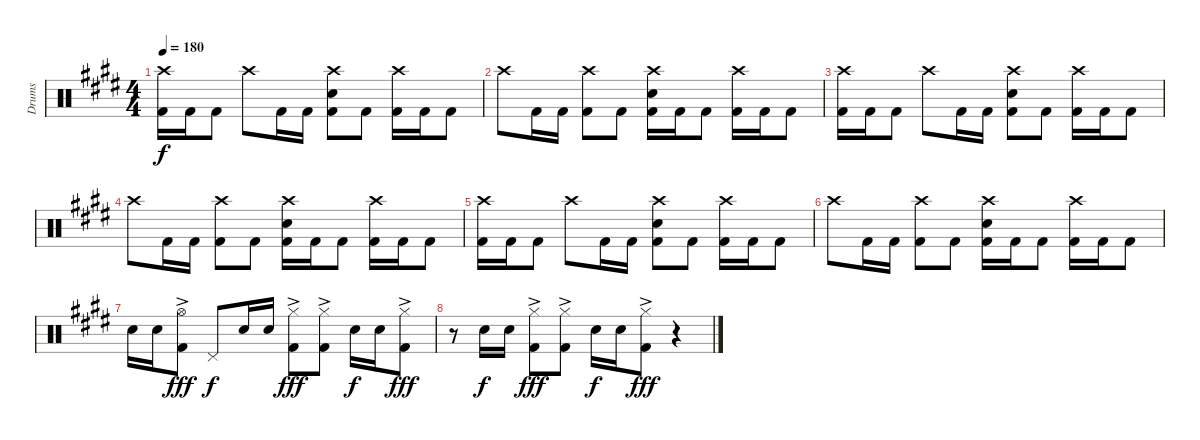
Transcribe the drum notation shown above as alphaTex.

\track ("Drums" "Drums") {instrument percussion}
\staff {score}
\articulation defaults
\ts (4 4)
\tempo 180
\clef neutral
\ks c#minor
("Crash high (hit)" "Kick (hit) 2").16{dy f} "Kick (hit) 2".16 "Kick (hit) 2".8 "Crash high (hit)".8 "Kick (hit) 2".16 "Kick (hit) 2".16 ("Crash high (hit)" "Snare (hit) 2" "Kick (hit) 2").8 "Kick (hit) 2".8 ("Crash high (hit)" "Kick (hit) 2").16 "Kick (hit) 2".16 "Kick (hit) 2".8 |
"Crash high (hit)".8 "Kick (hit) 2".16 "Kick (hit) 2".16 ("Crash high (hit)" "Kick (hit) 2").8 "Kick (hit) 2".8 ("Crash high (hit)" "Snare (hit) 2" "Kick (hit) 2").16 "Kick (hit) 2".16 "Kick (hit) 2".8 ("Crash high (hit)" "Kick (hit) 2").16 "Kick (hit) 2".16 "Kick (hit) 2".8 |
("Crash high (hit)" "Kick (hit) 2").16 "Kick (hit) 2".16 "Kick (hit) 2".8 "Crash high (hit)".8 "Kick (hit) 2".16 "Kick (hit) 2".16 ("Crash high (hit)" "Snare (hit) 2" "Kick (hit) 2").8 "Kick (hit) 2".8 ("Crash high (hit)" "Kick (hit) 2").16 "Kick (hit) 2".16 "Kick (hit) 2".8 |
"Crash high (hit)".8 "Kick (hit) 2".16 "Kick (hit) 2".16 ("Crash high (hit)" "Kick (hit) 2").8 "Kick (hit) 2".8 ("Crash high (hit)" "Snare (hit) 2" "Kick (hit) 2").16 "Kick (hit) 2".16 "Kick (hit) 2".8 ("Crash high (hit)" "Kick (hit) 2").16 "Kick (hit) 2".16 "Kick (hit) 2".8 |
("Crash high (hit)" "Kick (hit) 2").16 "Kick (hit) 2".16 "Kick (hit) 2".8 "Crash high (hit)".8 "Kick (hit) 2".16 "Kick (hit) 2".16 ("Crash high (hit)" "Snare (hit) 2" "Kick (hit) 2").8 "Kick (hit) 2".8 ("Crash high (hit)" "Kick (hit) 2").16 "Kick (hit) 2".16 "Kick (hit) 2".8 |
"Crash high (hit)".8 "Kick (hit) 2".16 "Kick (hit) 2".16 ("Crash high (hit)" "Kick (hit) 2").8 "Kick (hit) 2".8 ("Crash high (hit)" "Snare (hit) 2" "Kick (hit) 2").16 "Kick (hit) 2".16 "Kick (hit) 2".8 ("Crash high (hit)" "Kick (hit) 2").16 "Kick (hit) 2".16 "Kick (hit) 2".8 |
"Snare (hit) 2".16 "Snare (hit) 2".16 ("Hi-Hat (open)"{ac} "Kick (hit) 2").8{dy fff} "Pedal Hi-Hat (hit)".8{dy f} "Snare (hit) 2".16 "Snare (hit) 2".16 ("Hi-Hat (closed)"{ac} "Kick (hit) 2").8{dy fff} ("Hi-Hat (closed)"{ac} "Kick (hit) 2").8 "Snare (hit) 2".16{dy f} "Snare (hit) 2".16 ("Hi-Hat (closed)"{ac} "Kick (hit) 2").8{dy fff} |
r.8 "Snare (hit) 2".16{dy f} "Snare (hit) 2".16 ("Hi-Hat (closed)"{ac} "Kick (hit) 2").8{dy fff} ("Hi-Hat (closed)"{ac} "Kick (hit) 2").8 "Snare (hit) 2".16{dy f} "Snare (hit) 2".16 ("Hi-Hat (closed)"{ac} "Kick (hit) 2").8{dy fff} r.4
